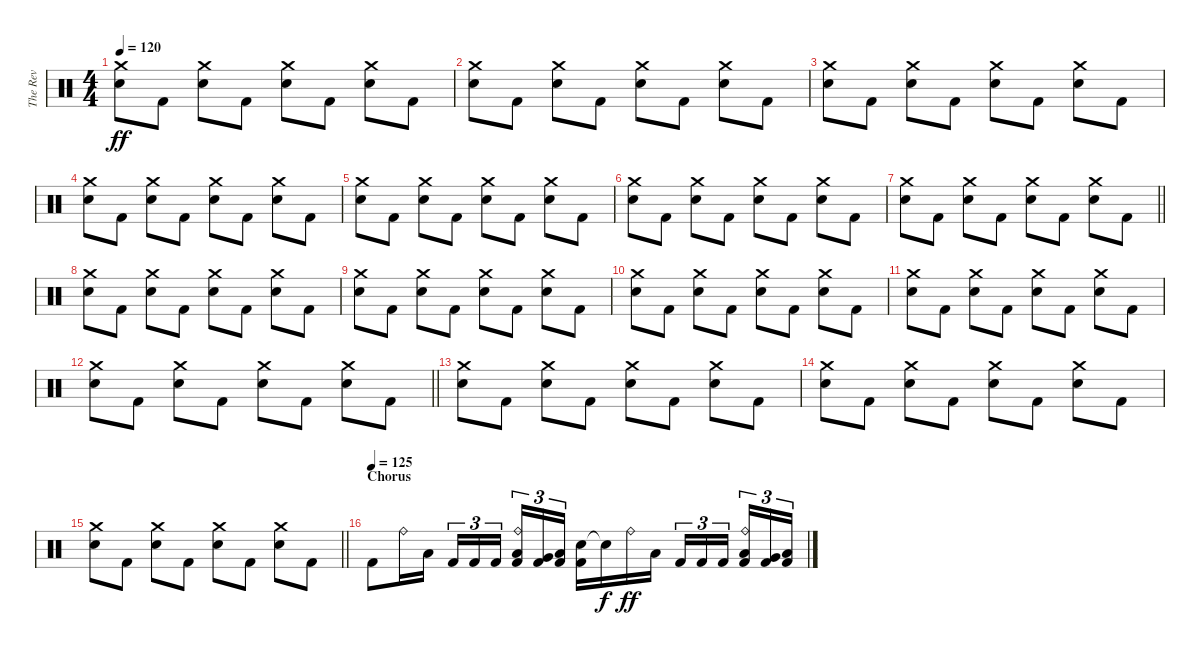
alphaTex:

\track ("The Rev" "The Rev") {instrument percussion}
\staff {score}
\articulation defaults
\ts (4 4)
\tempo 120
\clef neutral
\ks c
("Crash medium (hit)" "Electric Snare (hit)").8{dy ff} "Kick (hit) 2".8 ("Crash medium (hit)" "Electric Snare (hit)").8 "Kick (hit) 2".8 ("Crash medium (hit)" "Electric Snare (hit)").8 "Kick (hit) 2".8 ("Crash medium (hit)" "Electric Snare (hit)").8 "Kick (hit) 2".8 |
("Crash medium (hit)" "Electric Snare (hit)").8 "Kick (hit) 2".8 ("Crash medium (hit)" "Electric Snare (hit)").8 "Kick (hit) 2".8 ("Crash medium (hit)" "Electric Snare (hit)").8 "Kick (hit) 2".8 ("Crash medium (hit)" "Electric Snare (hit)").8 "Kick (hit) 2".8 |
("Crash medium (hit)" "Electric Snare (hit)").8 "Kick (hit) 2".8 ("Crash medium (hit)" "Electric Snare (hit)").8 "Kick (hit) 2".8 ("Crash medium (hit)" "Electric Snare (hit)").8 "Kick (hit) 2".8 ("Crash medium (hit)" "Electric Snare (hit)").8 "Kick (hit) 2".8 |
("Crash medium (hit)" "Electric Snare (hit)").8 "Kick (hit) 2".8 ("Crash medium (hit)" "Electric Snare (hit)").8 "Kick (hit) 2".8 ("Crash medium (hit)" "Electric Snare (hit)").8 "Kick (hit) 2".8 ("Crash medium (hit)" "Electric Snare (hit)").8 "Kick (hit) 2".8 |
("Crash medium (hit)" "Electric Snare (hit)").8 "Kick (hit) 2".8 ("Crash medium (hit)" "Electric Snare (hit)").8 "Kick (hit) 2".8 ("Crash medium (hit)" "Electric Snare (hit)").8 "Kick (hit) 2".8 ("Crash medium (hit)" "Electric Snare (hit)").8 "Kick (hit) 2".8 |
("Crash medium (hit)" "Electric Snare (hit)").8 "Kick (hit) 2".8 ("Crash medium (hit)" "Electric Snare (hit)").8 "Kick (hit) 2".8 ("Crash medium (hit)" "Electric Snare (hit)").8 "Kick (hit) 2".8 ("Crash medium (hit)" "Electric Snare (hit)").8 "Kick (hit) 2".8 |
\barLineRight lightlight
("Crash medium (hit)" "Electric Snare (hit)").8 "Kick (hit) 2".8 ("Crash medium (hit)" "Electric Snare (hit)").8 "Kick (hit) 2".8 ("Crash medium (hit)" "Electric Snare (hit)").8 "Kick (hit) 2".8 ("Crash medium (hit)" "Electric Snare (hit)").8 "Kick (hit) 2".8 |
("Crash medium (hit)" "Electric Snare (hit)").8 "Kick (hit) 2".8 ("Crash medium (hit)" "Electric Snare (hit)").8 "Kick (hit) 2".8 ("Crash medium (hit)" "Electric Snare (hit)").8 "Kick (hit) 2".8 ("Crash medium (hit)" "Electric Snare (hit)").8 "Kick (hit) 2".8 |
("Crash medium (hit)" "Electric Snare (hit)").8 "Kick (hit) 2".8 ("Crash medium (hit)" "Electric Snare (hit)").8 "Kick (hit) 2".8 ("Crash medium (hit)" "Electric Snare (hit)").8 "Kick (hit) 2".8 ("Crash medium (hit)" "Electric Snare (hit)").8 "Kick (hit) 2".8 |
("Crash medium (hit)" "Electric Snare (hit)").8 "Kick (hit) 2".8 ("Crash medium (hit)" "Electric Snare (hit)").8 "Kick (hit) 2".8 ("Crash medium (hit)" "Electric Snare (hit)").8 "Kick (hit) 2".8 ("Crash medium (hit)" "Electric Snare (hit)").8 "Kick (hit) 2".8 |
("Crash medium (hit)" "Electric Snare (hit)").8 "Kick (hit) 2".8 ("Crash medium (hit)" "Electric Snare (hit)").8 "Kick (hit) 2".8 ("Crash medium (hit)" "Electric Snare (hit)").8 "Kick (hit) 2".8 ("Crash medium (hit)" "Electric Snare (hit)").8 "Kick (hit) 2".8 |
\barLineRight lightlight
("Crash medium (hit)" "Electric Snare (hit)").8 "Kick (hit) 2".8 ("Crash medium (hit)" "Electric Snare (hit)").8 "Kick (hit) 2".8 ("Crash medium (hit)" "Electric Snare (hit)").8 "Kick (hit) 2".8 ("Crash medium (hit)" "Electric Snare (hit)").8 "Kick (hit) 2".8 |
("Crash medium (hit)" "Electric Snare (hit)").8 "Kick (hit) 2".8 ("Crash medium (hit)" "Electric Snare (hit)").8 "Kick (hit) 2".8 ("Crash medium (hit)" "Electric Snare (hit)").8 "Kick (hit) 2".8 ("Crash medium (hit)" "Electric Snare (hit)").8 "Kick (hit) 2".8 |
("Crash medium (hit)" "Electric Snare (hit)").8 "Kick (hit) 2".8 ("Crash medium (hit)" "Electric Snare (hit)").8 "Kick (hit) 2".8 ("Crash medium (hit)" "Electric Snare (hit)").8 "Kick (hit) 2".8 ("Crash medium (hit)" "Electric Snare (hit)").8 "Kick (hit) 2".8 |
\barLineRight lightlight
("Crash medium (hit)" "Electric Snare (hit)").8 "Kick (hit) 2".8 ("Crash medium (hit)" "Electric Snare (hit)").8 "Kick (hit) 2".8 ("Crash medium (hit)" "Electric Snare (hit)").8 "Kick (hit) 2".8 ("Crash medium (hit)" "Electric Snare (hit)").8 "Kick (hit) 2".8 |
\section ("" "Chorus")
\tempo (125)
"Kick (hit) 2".8 "Ride (bell)".16 "Low Tom (hit)".16 "Kick (hit) 2".16{tu (3 2)} "Kick (hit) 2".16{tu (3 2)} "Kick (hit) 2".16{tu (3 2) beam splitsecondary} ("Ride (bell)" "Low Tom (hit)" "Kick (hit) 2").16{tu (3 2)} ("Very Low Tom (hit)" "Kick (hit) 2").16{tu (3 2)} ("Low Floor Tom (hit)" "Kick (hit) 2").16{tu (3 2)} ("Electric Snare (hit)" "Kick (hit) 2").16 "Snare (hit)"{t}.16{dy f} "Ride (bell)".16{dy ff} "Low Tom (hit)".16 "Kick (hit) 2".16{tu (3 2)} "Kick (hit) 2".16{tu (3 2)} "Kick (hit) 2".16{tu (3 2) beam splitsecondary} ("Ride (bell)" "Low Tom (hit)" "Kick (hit) 2").16{tu (3 2)} ("Very Low Tom (hit)" "Kick (hit) 2").16{tu (3 2)} ("Low Floor Tom (hit)" "Kick (hit) 2").16{tu (3 2)}
